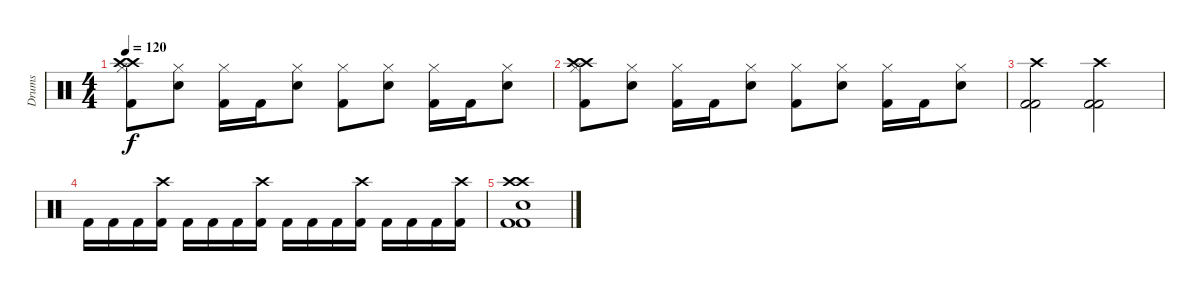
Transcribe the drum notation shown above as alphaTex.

\track ("Drums" "Drums") {instrument percussion}
\staff {score}
\articulation defaults
\ts (4 4)
\tempo 120
\clef neutral
\ks c
("Crash high (hit)" "Hi-Hat (closed)" "Crash high (hit)" "Kick (hit) 2").8{dy f} ("Hi-Hat (closed)" "Electric Snare (hit)").8 ("Hi-Hat (closed)" "Kick (hit) 2").16 "Kick (hit) 2".16 ("Hi-Hat (closed)" "Electric Snare (hit)").8 ("Hi-Hat (closed)" "Kick (hit) 2").8 ("Hi-Hat (closed)" "Electric Snare (hit)").8 ("Hi-Hat (closed)" "Kick (hit) 2").16 "Kick (hit) 2".16 ("Hi-Hat (closed)" "Electric Snare (hit)").8 |
("Crash high (hit)" "Hi-Hat (closed)" "Crash high (hit)" "Kick (hit) 2").8 ("Hi-Hat (closed)" "Electric Snare (hit)").8 ("Hi-Hat (closed)" "Kick (hit) 2").16 "Kick (hit) 2".16 ("Hi-Hat (closed)" "Electric Snare (hit)").8 ("Hi-Hat (closed)" "Kick (hit) 2").8 ("Hi-Hat (closed)" "Electric Snare (hit)").8 ("Hi-Hat (closed)" "Kick (hit) 2").16 "Kick (hit) 2".16 ("Hi-Hat (closed)" "Electric Snare (hit)").8 |
("Crash high (hit)" "Kick (hit) 2" "Kick (hit) 2").2 ("Crash high (hit)" "Kick (hit) 2" "Kick (hit) 2").2 |
"Kick (hit) 2".16 "Kick (hit) 2".16 "Kick (hit) 2".16 ("Crash high (hit)" "Kick (hit) 2").16 "Kick (hit) 2".16 "Kick (hit) 2".16 "Kick (hit) 2".16 ("Crash high (hit)" "Kick (hit) 2").16 "Kick (hit) 2".16 "Kick (hit) 2".16 "Kick (hit) 2".16 ("Crash high (hit)" "Kick (hit) 2").16 "Kick (hit) 2".16 "Kick (hit) 2".16 "Kick (hit) 2".16 ("Crash high (hit)" "Kick (hit) 2").16 |
("Electric Snare (hit)" "Crash high (hit)" "Crash high (hit)" "Kick (hit) 2" "Kick (hit) 2").1
